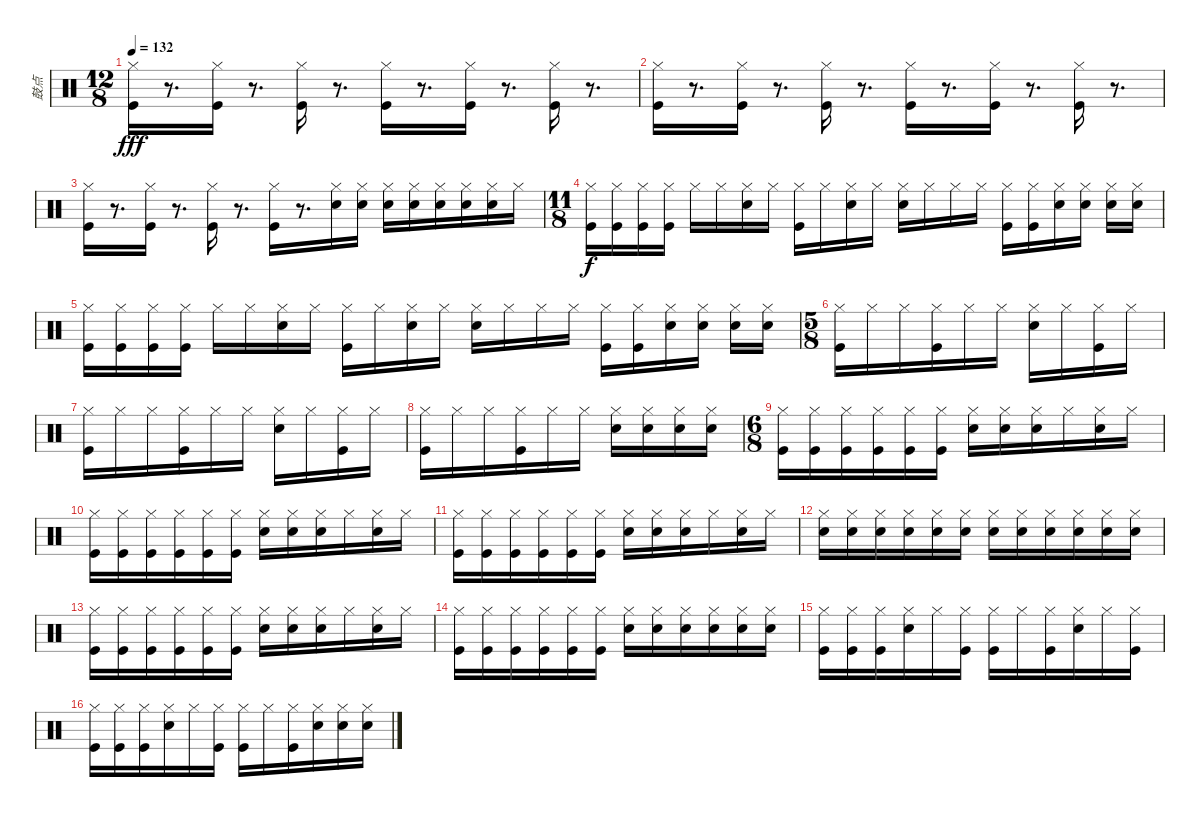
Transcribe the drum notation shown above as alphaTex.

\track ("鼓点" "鼓点") {instrument percussion}
\staff {score}
\articulation defaults
\ts (12 8)
\tempo 132
\clef neutral
\ks c
("Kick (hit)" "Hi-Hat (closed)").16{dy fff} r.8{d} ("Kick (hit)" "Hi-Hat (closed)").16 r.8{d} ("Kick (hit)" "Hi-Hat (closed)").16 r.8{d} ("Kick (hit)" "Hi-Hat (closed)").16 r.8{d} ("Kick (hit)" "Hi-Hat (closed)").16 r.8{d} ("Kick (hit)" "Hi-Hat (closed)").16 r.8{d} |
("Kick (hit)" "Hi-Hat (closed)").16 r.8{d} ("Kick (hit)" "Hi-Hat (closed)").16 r.8{d} ("Kick (hit)" "Hi-Hat (closed)").16 r.8{d} ("Kick (hit)" "Hi-Hat (closed)").16 r.8{d} ("Kick (hit)" "Hi-Hat (closed)").16 r.8{d} ("Kick (hit)" "Hi-Hat (closed)").16 r.8{d} |
("Kick (hit)" "Hi-Hat (closed)").16 r.8{d} ("Kick (hit)" "Hi-Hat (closed)").16 r.8{d} ("Kick (hit)" "Hi-Hat (closed)").16 r.8{d} ("Kick (hit)" "Hi-Hat (closed)").16 r.8{d} ("Hi-Hat (closed)" "Snare (hit) 2").16 ("Hi-Hat (closed)" "Snare (hit) 2").16 ("Hi-Hat (closed)" "Snare (hit) 2").16 ("Hi-Hat (closed)" "Snare (hit) 2").16 ("Hi-Hat (closed)" "Snare (hit) 2").16 ("Hi-Hat (closed)" "Snare (hit) 2").16 ("Hi-Hat (closed)" "Snare (hit) 2").16 "Hi-Hat (closed)".16 |
\ts (11 8)
("Kick (hit)" "Hi-Hat (closed)").16{dy f} ("Kick (hit)" "Hi-Hat (closed)").16 ("Kick (hit)" "Hi-Hat (closed)").16 ("Kick (hit)" "Hi-Hat (closed)").16 "Hi-Hat (closed)".16 "Hi-Hat (closed)".16 ("Snare (hit) 2" "Hi-Hat (closed)").16 "Hi-Hat (closed)".16 ("Kick (hit)" "Hi-Hat (closed)").16 "Hi-Hat (closed)".16 ("Snare (hit) 2" "Hi-Hat (closed)").16 "Hi-Hat (closed)".16 ("Snare (hit) 2" "Hi-Hat (closed)").16 "Hi-Hat (closed)".16 "Hi-Hat (closed)".16 "Hi-Hat (closed)".16 ("Kick (hit)" "Hi-Hat (closed)").16 ("Kick (hit)" "Hi-Hat (closed)").16 ("Snare (hit) 2" "Hi-Hat (closed)").16 ("Snare (hit) 2" "Hi-Hat (closed)").16 ("Snare (hit) 2" "Hi-Hat (closed)").16 ("Snare (hit) 2" "Hi-Hat (closed)").16 |
("Kick (hit)" "Hi-Hat (closed)").16 ("Kick (hit)" "Hi-Hat (closed)").16 ("Kick (hit)" "Hi-Hat (closed)").16 ("Kick (hit)" "Hi-Hat (closed)").16 "Hi-Hat (closed)".16 "Hi-Hat (closed)".16 ("Snare (hit) 2" "Hi-Hat (closed)").16 "Hi-Hat (closed)".16 ("Kick (hit)" "Hi-Hat (closed)").16 "Hi-Hat (closed)".16 ("Snare (hit) 2" "Hi-Hat (closed)").16 "Hi-Hat (closed)".16 ("Snare (hit) 2" "Hi-Hat (closed)").16 "Hi-Hat (closed)".16 "Hi-Hat (closed)".16 "Hi-Hat (closed)".16 ("Kick (hit)" "Hi-Hat (closed)").16 ("Kick (hit)" "Hi-Hat (closed)").16 ("Snare (hit) 2" "Hi-Hat (closed)").16 ("Snare (hit) 2" "Hi-Hat (closed)").16 ("Snare (hit) 2" "Hi-Hat (closed)").16 ("Snare (hit) 2" "Hi-Hat (closed)").16 |
\ts (5 8)
("Hi-Hat (closed)" "Kick (hit)").16 "Hi-Hat (closed)".16 "Hi-Hat (closed)".16 ("Kick (hit)" "Hi-Hat (closed)").16 "Hi-Hat (closed)".16 "Hi-Hat (closed)".16 ("Snare (hit) 2" "Hi-Hat (closed)").16 "Hi-Hat (closed)".16 ("Kick (hit)" "Hi-Hat (closed)").16 "Hi-Hat (closed)".16 |
("Hi-Hat (closed)" "Kick (hit)").16 "Hi-Hat (closed)".16 "Hi-Hat (closed)".16 ("Kick (hit)" "Hi-Hat (closed)").16 "Hi-Hat (closed)".16 "Hi-Hat (closed)".16 ("Snare (hit) 2" "Hi-Hat (closed)").16 "Hi-Hat (closed)".16 ("Kick (hit)" "Hi-Hat (closed)").16 "Hi-Hat (closed)".16 |
("Hi-Hat (closed)" "Kick (hit)").16 "Hi-Hat (closed)".16 "Hi-Hat (closed)".16 ("Kick (hit)" "Hi-Hat (closed)").16 "Hi-Hat (closed)".16 "Hi-Hat (closed)".16 ("Hi-Hat (closed)" "Snare (hit) 2").16 ("Hi-Hat (closed)" "Snare (hit) 2").16 ("Hi-Hat (closed)" "Snare (hit) 2").16 ("Hi-Hat (closed)" "Snare (hit) 2").16 |
\ts (6 8)
("Hi-Hat (closed)" "Kick (hit)").16 ("Kick (hit)" "Hi-Hat (closed)").16 ("Kick (hit)" "Hi-Hat (closed)").16 ("Kick (hit)" "Hi-Hat (closed)").16 ("Kick (hit)" "Hi-Hat (closed)").16 ("Kick (hit)" "Hi-Hat (closed)").16 ("Snare (hit) 2" "Hi-Hat (closed)").16 ("Snare (hit) 2" "Hi-Hat (closed)").16 ("Snare (hit) 2" "Hi-Hat (closed)").16 "Hi-Hat (closed)".16 ("Snare (hit) 2" "Hi-Hat (closed)").16 "Hi-Hat (closed)".16 |
("Hi-Hat (closed)" "Kick (hit)").16 ("Kick (hit)" "Hi-Hat (closed)").16 ("Kick (hit)" "Hi-Hat (closed)").16 ("Kick (hit)" "Hi-Hat (closed)").16 ("Kick (hit)" "Hi-Hat (closed)").16 ("Kick (hit)" "Hi-Hat (closed)").16 ("Snare (hit) 2" "Hi-Hat (closed)").16 ("Snare (hit) 2" "Hi-Hat (closed)").16 ("Snare (hit) 2" "Hi-Hat (closed)").16 "Hi-Hat (closed)".16 ("Snare (hit) 2" "Hi-Hat (closed)").16 "Hi-Hat (closed)".16 |
("Hi-Hat (closed)" "Kick (hit)").16 ("Kick (hit)" "Hi-Hat (closed)").16 ("Kick (hit)" "Hi-Hat (closed)").16 ("Kick (hit)" "Hi-Hat (closed)").16 ("Kick (hit)" "Hi-Hat (closed)").16 ("Kick (hit)" "Hi-Hat (closed)").16 ("Snare (hit) 2" "Hi-Hat (closed)").16 ("Snare (hit) 2" "Hi-Hat (closed)").16 ("Snare (hit) 2" "Hi-Hat (closed)").16 "Hi-Hat (closed)".16 ("Snare (hit) 2" "Hi-Hat (closed)").16 "Hi-Hat (closed)".16 |
("Hi-Hat (closed)" "Snare (hit) 2").16 ("Hi-Hat (closed)" "Snare (hit) 2").16 ("Hi-Hat (closed)" "Snare (hit) 2").16 ("Hi-Hat (closed)" "Snare (hit) 2").16 ("Hi-Hat (closed)" "Snare (hit) 2").16 ("Hi-Hat (closed)" "Snare (hit) 2").16 ("Hi-Hat (closed)" "Snare (hit) 2").16 ("Hi-Hat (closed)" "Snare (hit) 2").16 ("Hi-Hat (closed)" "Snare (hit) 2").16 ("Hi-Hat (closed)" "Snare (hit) 2").16 ("Hi-Hat (closed)" "Snare (hit) 2").16 ("Hi-Hat (closed)" "Snare (hit) 2").16 |
("Hi-Hat (closed)" "Kick (hit)").16 ("Kick (hit)" "Hi-Hat (closed)").16 ("Kick (hit)" "Hi-Hat (closed)").16 ("Kick (hit)" "Hi-Hat (closed)").16 ("Kick (hit)" "Hi-Hat (closed)").16 ("Kick (hit)" "Hi-Hat (closed)").16 ("Snare (hit) 2" "Hi-Hat (closed)").16 ("Snare (hit) 2" "Hi-Hat (closed)").16 ("Snare (hit) 2" "Hi-Hat (closed)").16 "Hi-Hat (closed)".16 ("Snare (hit) 2" "Hi-Hat (closed)").16 "Hi-Hat (closed)".16 |
("Hi-Hat (closed)" "Kick (hit)").16 ("Kick (hit)" "Hi-Hat (closed)").16 ("Kick (hit)" "Hi-Hat (closed)").16 ("Kick (hit)" "Hi-Hat (closed)").16 ("Kick (hit)" "Hi-Hat (closed)").16 ("Kick (hit)" "Hi-Hat (closed)").16 ("Hi-Hat (closed)" "Snare (hit) 2").16 ("Hi-Hat (closed)" "Snare (hit) 2").16 ("Hi-Hat (closed)" "Snare (hit) 2").16 ("Hi-Hat (closed)" "Snare (hit) 2").16 ("Hi-Hat (closed)" "Snare (hit) 2").16 ("Hi-Hat (closed)" "Snare (hit) 2").16 |
("Hi-Hat (closed)" "Kick (hit)").16 ("Kick (hit)" "Hi-Hat (closed)").16 ("Kick (hit)" "Hi-Hat (closed)").16 ("Snare (hit) 2" "Hi-Hat (closed)").16 "Hi-Hat (closed)".16 ("Kick (hit)" "Hi-Hat (closed)").16 ("Kick (hit)" "Hi-Hat (closed)").16 "Hi-Hat (closed)".16 ("Kick (hit)" "Hi-Hat (closed)").16 ("Snare (hit) 2" "Hi-Hat (closed)").16 "Hi-Hat (closed)".16 ("Kick (hit)" "Hi-Hat (closed)").16 |
("Hi-Hat (closed)" "Kick (hit)").16 ("Kick (hit)" "Hi-Hat (closed)").16 ("Kick (hit)" "Hi-Hat (closed)").16 ("Snare (hit) 2" "Hi-Hat (closed)").16 "Hi-Hat (closed)".16 ("Kick (hit)" "Hi-Hat (closed)").16 ("Kick (hit)" "Hi-Hat (closed)").16 "Hi-Hat (closed)".16 ("Kick (hit)" "Hi-Hat (closed)").16 ("Hi-Hat (closed)" "Snare (hit) 2").16 ("Hi-Hat (closed)" "Snare (hit) 2").16 ("Hi-Hat (closed)" "Snare (hit) 2").16
